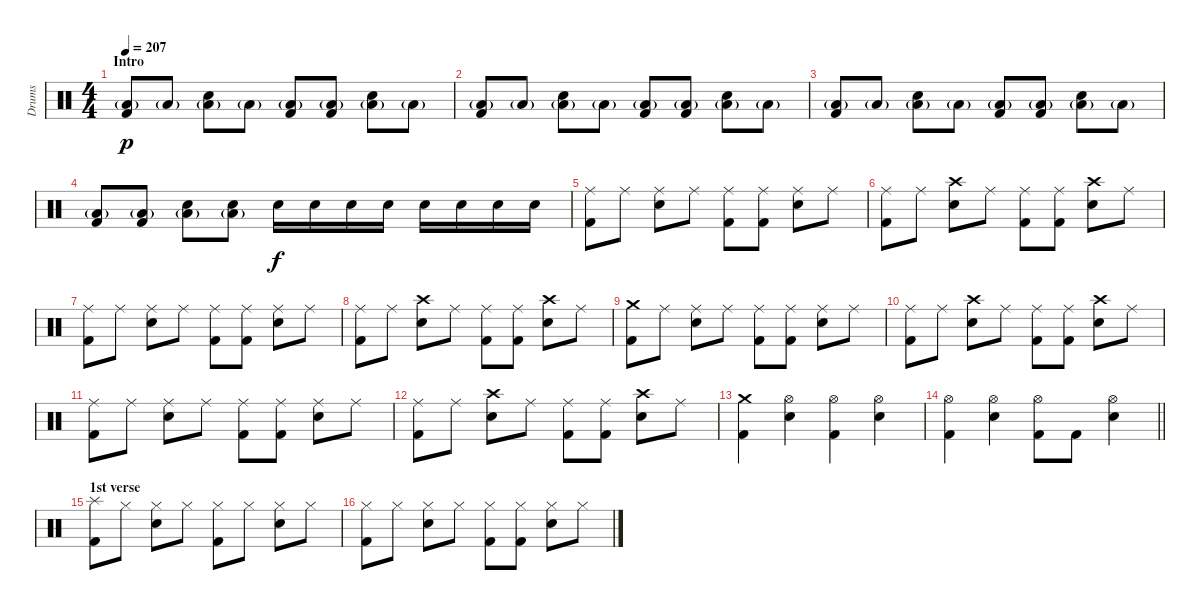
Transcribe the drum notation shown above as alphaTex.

\track ("Drums" "Drums") {instrument percussion}
\staff {score}
\articulation defaults
\ts (4 4)
\section ("" "Intro")
\tempo 207
\clef neutral
\ks c
("Low Floor Tom (hit)"{g} "Kick (hit) 2").8{dy p} "Low Floor Tom (hit)"{g}.8 ("Low Floor Tom (hit)"{g} "Electric Snare (hit)").8 "Low Floor Tom (hit)"{g}.8 ("Low Floor Tom (hit)"{g} "Kick (hit) 2").8 ("Low Floor Tom (hit)"{g} "Kick (hit) 2").8 ("Low Floor Tom (hit)"{g} "Electric Snare (hit)").8 "Low Floor Tom (hit)"{g}.8 |
("Low Floor Tom (hit)"{g} "Kick (hit) 2").8 "Low Floor Tom (hit)"{g}.8 ("Low Floor Tom (hit)"{g} "Electric Snare (hit)").8 "Low Floor Tom (hit)"{g}.8 ("Low Floor Tom (hit)"{g} "Kick (hit) 2").8 ("Low Floor Tom (hit)"{g} "Kick (hit) 2").8 ("Low Floor Tom (hit)"{g} "Electric Snare (hit)").8 "Low Floor Tom (hit)"{g}.8 |
("Low Floor Tom (hit)"{g} "Kick (hit) 2").8 "Low Floor Tom (hit)"{g}.8 ("Low Floor Tom (hit)"{g} "Electric Snare (hit)").8 "Low Floor Tom (hit)"{g}.8 ("Low Floor Tom (hit)"{g} "Kick (hit) 2").8 ("Low Floor Tom (hit)"{g} "Kick (hit) 2").8 ("Low Floor Tom (hit)"{g} "Electric Snare (hit)").8 "Low Floor Tom (hit)"{g}.8 |
("Low Floor Tom (hit)"{g} "Kick (hit) 2").8 ("Low Floor Tom (hit)"{g} "Kick (hit) 2").8 ("Low Floor Tom (hit)"{g} "Electric Snare (hit)").8 ("Low Floor Tom (hit)"{g} "Electric Snare (hit)").8 "Electric Snare (hit)".16{dy f} "Electric Snare (hit)".16 "Electric Snare (hit)".16 "Electric Snare (hit)".16 "Electric Snare (hit)".16 "Electric Snare (hit)".16 "Electric Snare (hit)".16 "Electric Snare (hit)".16 |
("Ride (middle)" "Kick (hit) 2").8 "Ride (middle)".8 ("Ride (middle)" "Electric Snare (hit)").8 "Ride (middle)".8 ("Ride (middle)" "Kick (hit) 2").8 ("Ride (middle)" "Kick (hit) 2").8 ("Ride (middle)" "Electric Snare (hit)").8 "Ride (middle)".8 |
("Ride (middle)" "Kick (hit) 2").8 "Ride (middle)".8 ("Crash high (hit)" "Electric Snare (hit)").8 "Ride (middle)".8 ("Ride (middle)" "Kick (hit) 2").8 ("Ride (middle)" "Kick (hit) 2").8 ("Crash high (hit)" "Electric Snare (hit)").8 "Ride (middle)".8 |
("Ride (middle)" "Kick (hit) 2").8 "Ride (middle)".8 ("Ride (middle)" "Electric Snare (hit)").8 "Ride (middle)".8 ("Ride (middle)" "Kick (hit) 2").8 ("Ride (middle)" "Kick (hit) 2").8 ("Ride (middle)" "Electric Snare (hit)").8 "Ride (middle)".8 |
("Ride (middle)" "Kick (hit) 2").8 "Ride (middle)".8 ("Crash high (hit)" "Electric Snare (hit)").8 "Ride (middle)".8 ("Ride (middle)" "Kick (hit) 2").8 ("Ride (middle)" "Kick (hit) 2").8 ("Crash high (hit)" "Electric Snare (hit)").8 "Ride (middle)".8 |
("Crash medium (hit)" "Kick (hit) 2").8 "Ride (middle)".8 ("Ride (middle)" "Electric Snare (hit)").8 "Ride (middle)".8 ("Ride (middle)" "Kick (hit) 2").8 ("Ride (middle)" "Kick (hit) 2").8 ("Ride (middle)" "Electric Snare (hit)").8 "Ride (middle)".8 |
("Ride (middle)" "Kick (hit) 2").8 "Ride (middle)".8 ("Crash high (hit)" "Electric Snare (hit)").8 "Ride (middle)".8 ("Ride (middle)" "Kick (hit) 2").8 ("Ride (middle)" "Kick (hit) 2").8 ("Crash high (hit)" "Electric Snare (hit)").8 "Ride (middle)".8 |
("Ride (middle)" "Kick (hit) 2").8 "Ride (middle)".8 ("Ride (middle)" "Electric Snare (hit)").8 "Ride (middle)".8 ("Ride (middle)" "Kick (hit) 2").8 ("Ride (middle)" "Kick (hit) 2").8 ("Ride (middle)" "Electric Snare (hit)").8 "Ride (middle)".8 |
("Ride (middle)" "Kick (hit) 2").8 "Ride (middle)".8 ("Crash high (hit)" "Electric Snare (hit)").8 "Ride (middle)".8 ("Ride (middle)" "Kick (hit) 2").8 ("Ride (middle)" "Kick (hit) 2").8 ("Crash high (hit)" "Electric Snare (hit)").8 "Ride (middle)".8 |
("Crash medium (hit)" "Kick (hit) 2").4 ("Hi-Hat (open)" "Electric Snare (hit)").4 ("Hi-Hat (open)" "Kick (hit) 2").4 ("Hi-Hat (open)" "Electric Snare (hit)").4 |
\barLineRight lightlight
("Hi-Hat (open)" "Kick (hit) 2").4 ("Hi-Hat (open)" "Electric Snare (hit)").4 ("Hi-Hat (open)" "Kick (hit) 2").8 "Kick (hit) 2".8 ("Hi-Hat (open)" "Electric Snare (hit)").4 |
\section ("" "1st verse")
("Splash (hit)" "Kick (hit) 2").8 "Hi-Hat (closed)".8 ("Hi-Hat (closed)" "Electric Snare (hit)").8 "Hi-Hat (closed)".8 ("Hi-Hat (closed)" "Kick (hit) 2").8 "Hi-Hat (closed)".8 ("Hi-Hat (closed)" "Electric Snare (hit)").8 "Hi-Hat (closed)".8 |
("Hi-Hat (closed)" "Kick (hit) 2").8 "Hi-Hat (closed)".8 ("Hi-Hat (closed)" "Electric Snare (hit)").8 "Hi-Hat (closed)".8 ("Hi-Hat (closed)" "Kick (hit) 2").8 ("Hi-Hat (closed)" "Kick (hit) 2").8 ("Hi-Hat (closed)" "Electric Snare (hit)").8 "Hi-Hat (closed)".8
